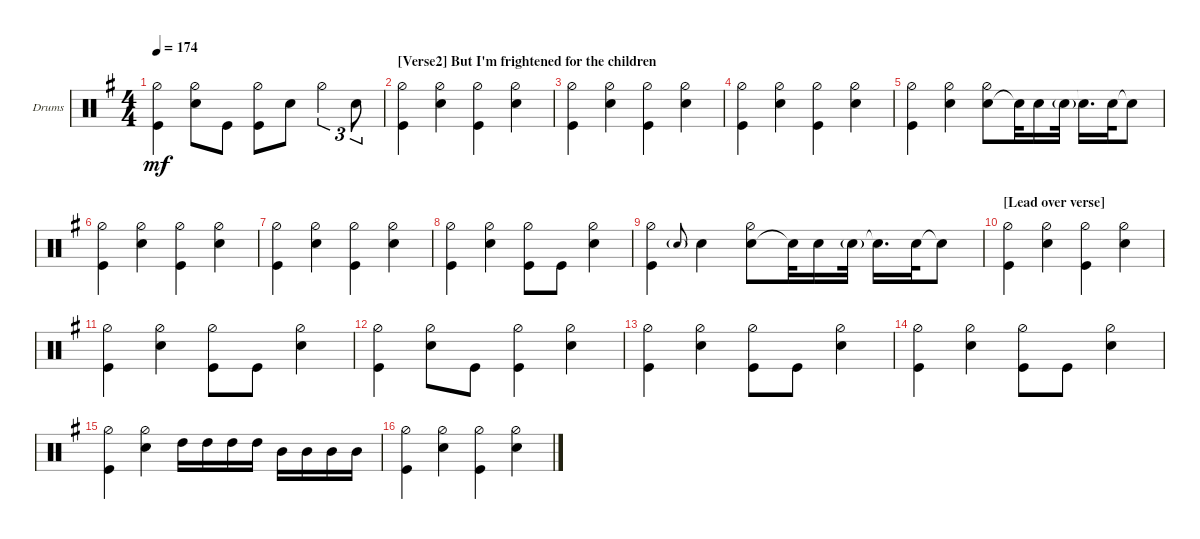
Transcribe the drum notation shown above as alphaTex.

\bracketExtendMode groupsimilarinstruments
\firstSystemTrackNameOrientation horizontal
\otherSystemsTrackNameOrientation horizontal
\track ("Drumkit" "Drums") {instrument percussion}
\staff {score}
\articulation defaults
\ts (4 4)
\tempo 174
\clef neutral
\scale
0.333333
\ks eminor
("Kick (hit)" "Hi-Hat (half)").4{dy mf} ("Snare (hit) 2" "Hi-Hat (half)").8 "Kick (hit)".8 ("Kick (hit)" "Hi-Hat (half)").8 "Snare (hit) 2".8 "Hi-Hat (half)".4{tu (3 2)} "Snare (hit) 2".8{tu (3 2)} |
\section ("" "[Verse2] But I'm frightened for the children")
\scale
0.333333 ("Kick (hit)" "Hi-Hat (half)").4 ("Snare (hit) 2" "Hi-Hat (half)").4 ("Kick (hit)" "Hi-Hat (half)").4 ("Snare (hit) 2" "Hi-Hat (half)").4 |
\scale
0.333333 ("Kick (hit)" "Hi-Hat (half)").4 ("Snare (hit) 2" "Hi-Hat (half)").4 ("Kick (hit)" "Hi-Hat (half)").4 ("Snare (hit) 2" "Hi-Hat (half)").4 |
\scale
0.333333 ("Kick (hit)" "Hi-Hat (half)").4 ("Snare (hit) 2" "Hi-Hat (half)").4 ("Kick (hit)" "Hi-Hat (half)").4 ("Snare (hit) 2" "Hi-Hat (half)").4 |
\scale
0.333333 ("Kick (hit)" "Hi-Hat (half)").4 ("Snare (hit) 2" "Hi-Hat (half)").4 ("Snare (hit) 2" "Hi-Hat (half)").8 "Snare (hit) 2"{t}.32 "Snare (hit) 2".16 "Snare (hit) 2"{g}.32 "Snare (hit) 2"{t}.16{d} "Snare (hit) 2".32 "Snare (hit) 2"{t}.8 |
\scale
0.333333 ("Kick (hit)" "Hi-Hat (half)").4 ("Snare (hit) 2" "Hi-Hat (half)").4 ("Kick (hit)" "Hi-Hat (half)").4 ("Snare (hit) 2" "Hi-Hat (half)").4 |
\scale
0.333333 ("Kick (hit)" "Hi-Hat (half)").4 ("Snare (hit) 2" "Hi-Hat (half)").4 ("Kick (hit)" "Hi-Hat (half)").4 ("Snare (hit) 2" "Hi-Hat (half)").4 |
\scale
0.333333 ("Kick (hit)" "Hi-Hat (half)").4 ("Snare (hit) 2" "Hi-Hat (half)").4 ("Kick (hit)" "Hi-Hat (half)").8 "Kick (hit)".8 ("Snare (hit) 2" "Hi-Hat (half)").4 |
\scale
0.333333 ("Kick (hit)" "Hi-Hat (half)").4 "Snare (hit) 2"{g}.8{gr onbeat} "Snare (hit) 2".4 ("Snare (hit) 2" "Hi-Hat (half)").8 "Snare (hit) 2"{t}.32 "Snare (hit) 2".16 "Snare (hit) 2"{g}.32 "Snare (hit) 2"{t}.16{d} "Snare (hit) 2".32 "Snare (hit) 2"{t}.8 |
\section ("" "[Lead over verse]  ")
\scale
0.333333 ("Kick (hit)" "Hi-Hat (half)").4 ("Snare (hit) 2" "Hi-Hat (half)").4 ("Kick (hit)" "Hi-Hat (half)").4 ("Snare (hit) 2" "Hi-Hat (half)").4 |
\scale
0.333333 ("Kick (hit)" "Hi-Hat (half)").4 ("Snare (hit) 2" "Hi-Hat (half)").4 ("Kick (hit)" "Hi-Hat (half)").8 "Kick (hit)".8 ("Snare (hit) 2" "Hi-Hat (half)").4 |
\scale
0.333333 ("Kick (hit)" "Hi-Hat (half)").4 ("Snare (hit) 2" "Hi-Hat (half)").8 "Kick (hit)".8 ("Kick (hit)" "Hi-Hat (half)").4 ("Snare (hit) 2" "Hi-Hat (half)").4 |
\scale
0.333333 ("Kick (hit)" "Hi-Hat (half)").4 ("Snare (hit) 2" "Hi-Hat (half)").4 ("Kick (hit)" "Hi-Hat (half)").8 "Kick (hit)".8 ("Snare (hit) 2" "Hi-Hat (half)").4 |
\scale
0.333333 ("Kick (hit)" "Hi-Hat (half)").4 ("Snare (hit) 2" "Hi-Hat (half)").4 ("Kick (hit)" "Hi-Hat (half)").8 "Kick (hit)".8 ("Snare (hit) 2" "Hi-Hat (half)").4 |
\scale
0.333333 ("Kick (hit)" "Hi-Hat (half)").4 ("Snare (hit) 2" "Hi-Hat (half)").4 "High Tom (hit)".16 "High Tom (hit)".16 "High Tom (hit)".16 "High Tom (hit)".16 "Mid Tom (hit)".16 "Mid Tom (hit)".16 "Mid Tom (hit)".16 "Mid Tom (hit)".16 |
\scale
0.333333 ("Kick (hit)" "Hi-Hat (half)").4 ("Snare (hit) 2" "Hi-Hat (half)").4 ("Kick (hit)" "Hi-Hat (half)").4 ("Snare (hit) 2" "Hi-Hat (half)").4
